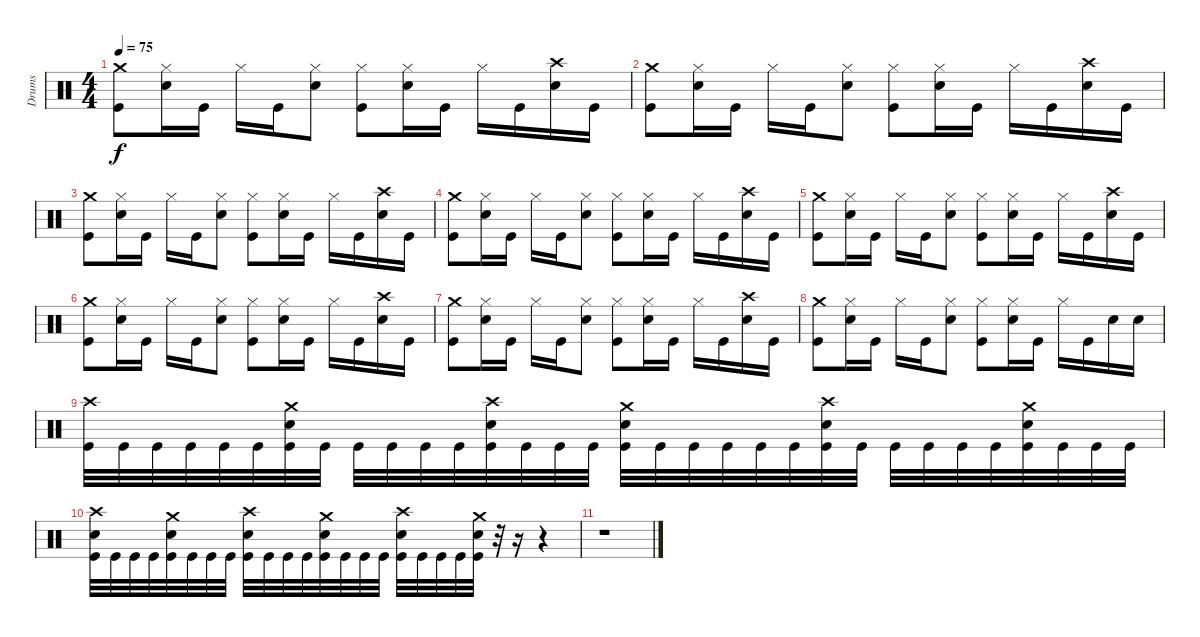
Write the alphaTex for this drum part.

\track ("Drums" "Drums") {instrument percussion}
\staff {score}
\articulation defaults
\ts (4 4)
\tempo 75
\clef neutral
\ks c
("Crash medium (hit)" "Kick (hit)").8{dy f} ("Hi-Hat (closed)" "Snare (hit) 2").16 "Kick (hit)".16 "Hi-Hat (closed)".16 "Kick (hit)".16 ("Hi-Hat (closed)" "Snare (hit) 2").8 ("Hi-Hat (closed)" "Kick (hit)").8 ("Hi-Hat (closed)" "Snare (hit) 2").16 "Kick (hit)".16 "Hi-Hat (closed)".16 "Kick (hit)".16 ("Crash high (hit)" "Snare (hit) 2").16 "Kick (hit)".16 |
("Crash medium (hit)" "Kick (hit)").8 ("Hi-Hat (closed)" "Snare (hit) 2").16 "Kick (hit)".16 "Hi-Hat (closed)".16 "Kick (hit)".16 ("Hi-Hat (closed)" "Snare (hit) 2").8 ("Hi-Hat (closed)" "Kick (hit)").8 ("Hi-Hat (closed)" "Snare (hit) 2").16 "Kick (hit)".16 "Hi-Hat (closed)".16 "Kick (hit)".16 ("Crash high (hit)" "Snare (hit) 2").16 "Kick (hit)".16 |
("Crash medium (hit)" "Kick (hit)").8 ("Hi-Hat (closed)" "Snare (hit) 2").16 "Kick (hit)".16 "Hi-Hat (closed)".16 "Kick (hit)".16 ("Hi-Hat (closed)" "Snare (hit) 2").8 ("Hi-Hat (closed)" "Kick (hit)").8 ("Hi-Hat (closed)" "Snare (hit) 2").16 "Kick (hit)".16 "Hi-Hat (closed)".16 "Kick (hit)".16 ("Crash high (hit)" "Snare (hit) 2").16 "Kick (hit)".16 |
("Crash medium (hit)" "Kick (hit)").8 ("Hi-Hat (closed)" "Snare (hit) 2").16 "Kick (hit)".16 "Hi-Hat (closed)".16 "Kick (hit)".16 ("Hi-Hat (closed)" "Snare (hit) 2").8 ("Hi-Hat (closed)" "Kick (hit)").8 ("Hi-Hat (closed)" "Snare (hit) 2").16 "Kick (hit)".16 "Hi-Hat (closed)".16 "Kick (hit)".16 ("Crash high (hit)" "Snare (hit) 2").16 "Kick (hit)".16 |
("Crash medium (hit)" "Kick (hit)").8 ("Hi-Hat (closed)" "Snare (hit) 2").16 "Kick (hit)".16 "Hi-Hat (closed)".16 "Kick (hit)".16 ("Hi-Hat (closed)" "Snare (hit) 2").8 ("Hi-Hat (closed)" "Kick (hit)").8 ("Hi-Hat (closed)" "Snare (hit) 2").16 "Kick (hit)".16 "Hi-Hat (closed)".16 "Kick (hit)".16 ("Crash high (hit)" "Snare (hit) 2").16 "Kick (hit)".16 |
("Crash medium (hit)" "Kick (hit)").8 ("Hi-Hat (closed)" "Snare (hit) 2").16 "Kick (hit)".16 "Hi-Hat (closed)".16 "Kick (hit)".16 ("Hi-Hat (closed)" "Snare (hit) 2").8 ("Hi-Hat (closed)" "Kick (hit)").8 ("Hi-Hat (closed)" "Snare (hit) 2").16 "Kick (hit)".16 "Hi-Hat (closed)".16 "Kick (hit)".16 ("Crash high (hit)" "Snare (hit) 2").16 "Kick (hit)".16 |
("Crash medium (hit)" "Kick (hit)").8 ("Hi-Hat (closed)" "Snare (hit) 2").16 "Kick (hit)".16 "Hi-Hat (closed)".16 "Kick (hit)".16 ("Hi-Hat (closed)" "Snare (hit) 2").8 ("Hi-Hat (closed)" "Kick (hit)").8 ("Hi-Hat (closed)" "Snare (hit) 2").16 "Kick (hit)".16 "Hi-Hat (closed)".16 "Kick (hit)".16 ("Crash high (hit)" "Snare (hit) 2").16 "Kick (hit)".16 |
("Crash medium (hit)" "Kick (hit)").8 ("Hi-Hat (closed)" "Snare (hit) 2").16 "Kick (hit)".16 "Hi-Hat (closed)".16 "Kick (hit)".16 ("Hi-Hat (closed)" "Snare (hit) 2").8 ("Hi-Hat (closed)" "Kick (hit)").8 ("Hi-Hat (closed)" "Snare (hit) 2").16 "Kick (hit)".16 "Hi-Hat (closed)".16 "Kick (hit)".16 "Snare (hit) 2".16 "Snare (hit) 2".16 |
("Crash high (hit)" "Kick (hit)").32 "Kick (hit)".32 "Kick (hit)".32 "Kick (hit)".32 "Kick (hit)".32 "Kick (hit)".32 ("Crash medium (hit)" "Snare (hit) 2" "Kick (hit)").32 "Kick (hit)".32 "Kick (hit)".32 "Kick (hit)".32 "Kick (hit)".32 "Kick (hit)".32 ("Crash high (hit)" "Snare (hit) 2" "Kick (hit)").32 "Kick (hit)".32 "Kick (hit)".32 "Kick (hit)".32 ("Crash medium (hit)" "Snare (hit) 2" "Kick (hit)").32 "Kick (hit)".32 "Kick (hit)".32 "Kick (hit)".32 "Kick (hit)".32 "Kick (hit)".32 ("Crash high (hit)" "Snare (hit) 2" "Kick (hit)").32 "Kick (hit)".32 "Kick (hit)".32 "Kick (hit)".32 "Kick (hit)".32 "Kick (hit)".32 ("Crash medium (hit)" "Snare (hit) 2" "Kick (hit)").32 "Kick (hit)".32 "Kick (hit)".32 "Kick (hit)".32 |
("Crash high (hit)" "Snare (hit) 2" "Kick (hit)").32 "Kick (hit)".32 "Kick (hit)".32 "Kick (hit)".32 ("Crash medium (hit)" "Snare (hit) 2" "Kick (hit)").32 "Kick (hit)".32 "Kick (hit)".32 "Kick (hit)".32 ("Crash high (hit)" "Snare (hit) 2" "Kick (hit)").32 "Kick (hit)".32 "Kick (hit)".32 "Kick (hit)".32 ("Crash medium (hit)" "Snare (hit) 2" "Kick (hit)").32 "Kick (hit)".32 "Kick (hit)".32 "Kick (hit)".32 ("Crash high (hit)" "Snare (hit) 2" "Kick (hit)").32 "Kick (hit)".32 "Kick (hit)".32 "Kick (hit)".32 ("Crash medium (hit)" "Snare (hit) 2" "Kick (hit)").32 r.32 r.16 r.4 |
r.1
